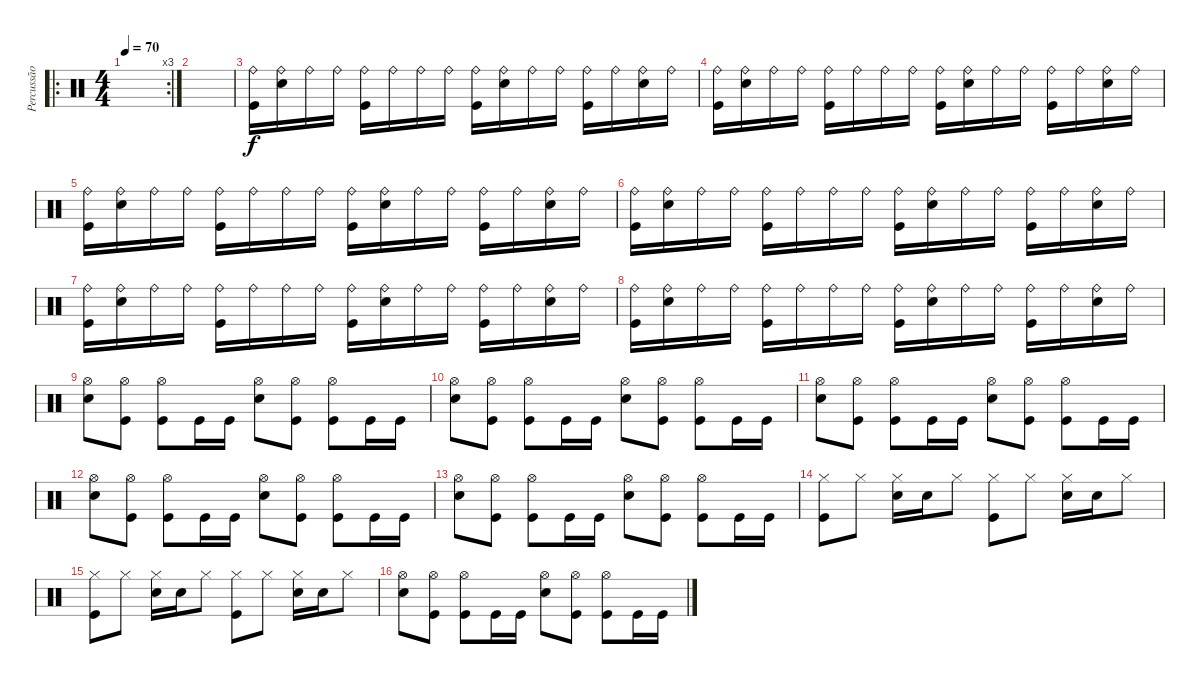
\track ("Percussão" "Percussão") {instrument percussion}
\staff {score}
\articulation defaults
\ro
\rc 3
\ts (4 4)
\tempo 70
\clef neutral
\ks c
|
|
("Ride (bell)" "Kick (hit)").16 ("Ride (bell)" "Electric Snare (hit)").16 "Ride (bell)".16 "Ride (bell)".16 ("Ride (bell)" "Kick (hit)").16 "Ride (bell)".16 "Ride (bell)".16 "Ride (bell)".16 ("Ride (bell)" "Kick (hit)").16 ("Ride (bell)" "Electric Snare (hit)").16 "Ride (bell)".16 "Ride (bell)".16 ("Ride (bell)" "Kick (hit)").16 "Ride (bell)".16 ("Ride (bell)" "Electric Snare (hit)").16 "Ride (bell)".16 |
("Ride (bell)" "Kick (hit)").16 ("Ride (bell)" "Electric Snare (hit)").16 "Ride (bell)".16 "Ride (bell)".16 ("Ride (bell)" "Kick (hit)").16 "Ride (bell)".16 "Ride (bell)".16 "Ride (bell)".16 ("Ride (bell)" "Kick (hit)").16 ("Ride (bell)" "Electric Snare (hit)").16 "Ride (bell)".16 "Ride (bell)".16 ("Ride (bell)" "Kick (hit)").16 "Ride (bell)".16 ("Ride (bell)" "Electric Snare (hit)").16 "Ride (bell)".16 |
("Ride (bell)" "Kick (hit)").16 ("Ride (bell)" "Electric Snare (hit)").16 "Ride (bell)".16 "Ride (bell)".16 ("Ride (bell)" "Kick (hit)").16 "Ride (bell)".16 "Ride (bell)".16 "Ride (bell)".16 ("Ride (bell)" "Kick (hit)").16 ("Ride (bell)" "Electric Snare (hit)").16 "Ride (bell)".16 "Ride (bell)".16 ("Ride (bell)" "Kick (hit)").16 "Ride (bell)".16 ("Ride (bell)" "Electric Snare (hit)").16 "Ride (bell)".16 |
("Ride (bell)" "Kick (hit)").16 ("Ride (bell)" "Electric Snare (hit)").16 "Ride (bell)".16 "Ride (bell)".16 ("Ride (bell)" "Kick (hit)").16 "Ride (bell)".16 "Ride (bell)".16 "Ride (bell)".16 ("Ride (bell)" "Kick (hit)").16 ("Ride (bell)" "Electric Snare (hit)").16 "Ride (bell)".16 "Ride (bell)".16 ("Ride (bell)" "Kick (hit)").16 "Ride (bell)".16 ("Ride (bell)" "Electric Snare (hit)").16 "Ride (bell)".16 |
("Ride (bell)" "Kick (hit)").16 ("Ride (bell)" "Electric Snare (hit)").16 "Ride (bell)".16 "Ride (bell)".16 ("Ride (bell)" "Kick (hit)").16 "Ride (bell)".16 "Ride (bell)".16 "Ride (bell)".16 ("Ride (bell)" "Kick (hit)").16 ("Ride (bell)" "Electric Snare (hit)").16 "Ride (bell)".16 "Ride (bell)".16 ("Ride (bell)" "Kick (hit)").16 "Ride (bell)".16 ("Ride (bell)" "Electric Snare (hit)").16 "Ride (bell)".16 |
("Ride (bell)" "Kick (hit)").16 ("Ride (bell)" "Electric Snare (hit)").16 "Ride (bell)".16 "Ride (bell)".16 ("Ride (bell)" "Kick (hit)").16 "Ride (bell)".16 "Ride (bell)".16 "Ride (bell)".16 ("Ride (bell)" "Kick (hit)").16 ("Ride (bell)" "Electric Snare (hit)").16 "Ride (bell)".16 "Ride (bell)".16 ("Ride (bell)" "Kick (hit)").16 "Ride (bell)".16 ("Ride (bell)" "Electric Snare (hit)").16 "Ride (bell)".16 |
("Hi-Hat (open)" "Electric Snare (hit)").8{dy f} ("Hi-Hat (open)" "Kick (hit)").8 ("Hi-Hat (open)" "Kick (hit)").8 "Kick (hit)".16 "Kick (hit)".16 ("Hi-Hat (open)" "Electric Snare (hit)").8 ("Hi-Hat (open)" "Kick (hit)").8 ("Hi-Hat (open)" "Kick (hit)").8 "Kick (hit)".16 "Kick (hit)".16 |
("Hi-Hat (open)" "Electric Snare (hit)").8 ("Hi-Hat (open)" "Kick (hit)").8 ("Hi-Hat (open)" "Kick (hit)").8 "Kick (hit)".16 "Kick (hit)".16 ("Hi-Hat (open)" "Electric Snare (hit)").8 ("Hi-Hat (open)" "Kick (hit)").8 ("Hi-Hat (open)" "Kick (hit)").8 "Kick (hit)".16 "Kick (hit)".16 |
("Hi-Hat (open)" "Electric Snare (hit)").8 ("Hi-Hat (open)" "Kick (hit)").8 ("Hi-Hat (open)" "Kick (hit)").8 "Kick (hit)".16 "Kick (hit)".16 ("Hi-Hat (open)" "Electric Snare (hit)").8 ("Hi-Hat (open)" "Kick (hit)").8 ("Hi-Hat (open)" "Kick (hit)").8 "Kick (hit)".16 "Kick (hit)".16 |
("Hi-Hat (open)" "Electric Snare (hit)").8 ("Hi-Hat (open)" "Kick (hit)").8 ("Hi-Hat (open)" "Kick (hit)").8 "Kick (hit)".16 "Kick (hit)".16 ("Hi-Hat (open)" "Electric Snare (hit)").8 ("Hi-Hat (open)" "Kick (hit)").8 ("Hi-Hat (open)" "Kick (hit)").8 "Kick (hit)".16 "Kick (hit)".16 |
("Hi-Hat (open)" "Electric Snare (hit)").8 ("Hi-Hat (open)" "Kick (hit)").8 ("Hi-Hat (open)" "Kick (hit)").8 "Kick (hit)".16 "Kick (hit)".16 ("Hi-Hat (open)" "Electric Snare (hit)").8 ("Hi-Hat (open)" "Kick (hit)").8 ("Hi-Hat (open)" "Kick (hit)").8 "Kick (hit)".16 "Kick (hit)".16 |
("Hi-Hat (closed)" "Kick (hit)").8 "Hi-Hat (closed)".8 ("Hi-Hat (closed)" "Electric Snare (hit)").16 "Electric Snare (hit)".16 "Hi-Hat (closed)".8 ("Hi-Hat (closed)" "Kick (hit)").8 "Hi-Hat (closed)".8 ("Hi-Hat (closed)" "Electric Snare (hit)").16 "Electric Snare (hit)".16 "Hi-Hat (closed)".8 |
("Hi-Hat (closed)" "Kick (hit)").8 "Hi-Hat (closed)".8 ("Hi-Hat (closed)" "Electric Snare (hit)").16 "Electric Snare (hit)".16 "Hi-Hat (closed)".8 ("Hi-Hat (closed)" "Kick (hit)").8 "Hi-Hat (closed)".8 ("Hi-Hat (closed)" "Electric Snare (hit)").16 "Electric Snare (hit)".16 "Hi-Hat (closed)".8 |
("Hi-Hat (open)" "Electric Snare (hit)").8 ("Hi-Hat (open)" "Kick (hit)").8 ("Hi-Hat (open)" "Kick (hit)").8 "Kick (hit)".16 "Kick (hit)".16 ("Hi-Hat (open)" "Electric Snare (hit)").8 ("Hi-Hat (open)" "Kick (hit)").8 ("Hi-Hat (open)" "Kick (hit)").8 "Kick (hit)".16 "Kick (hit)".16
